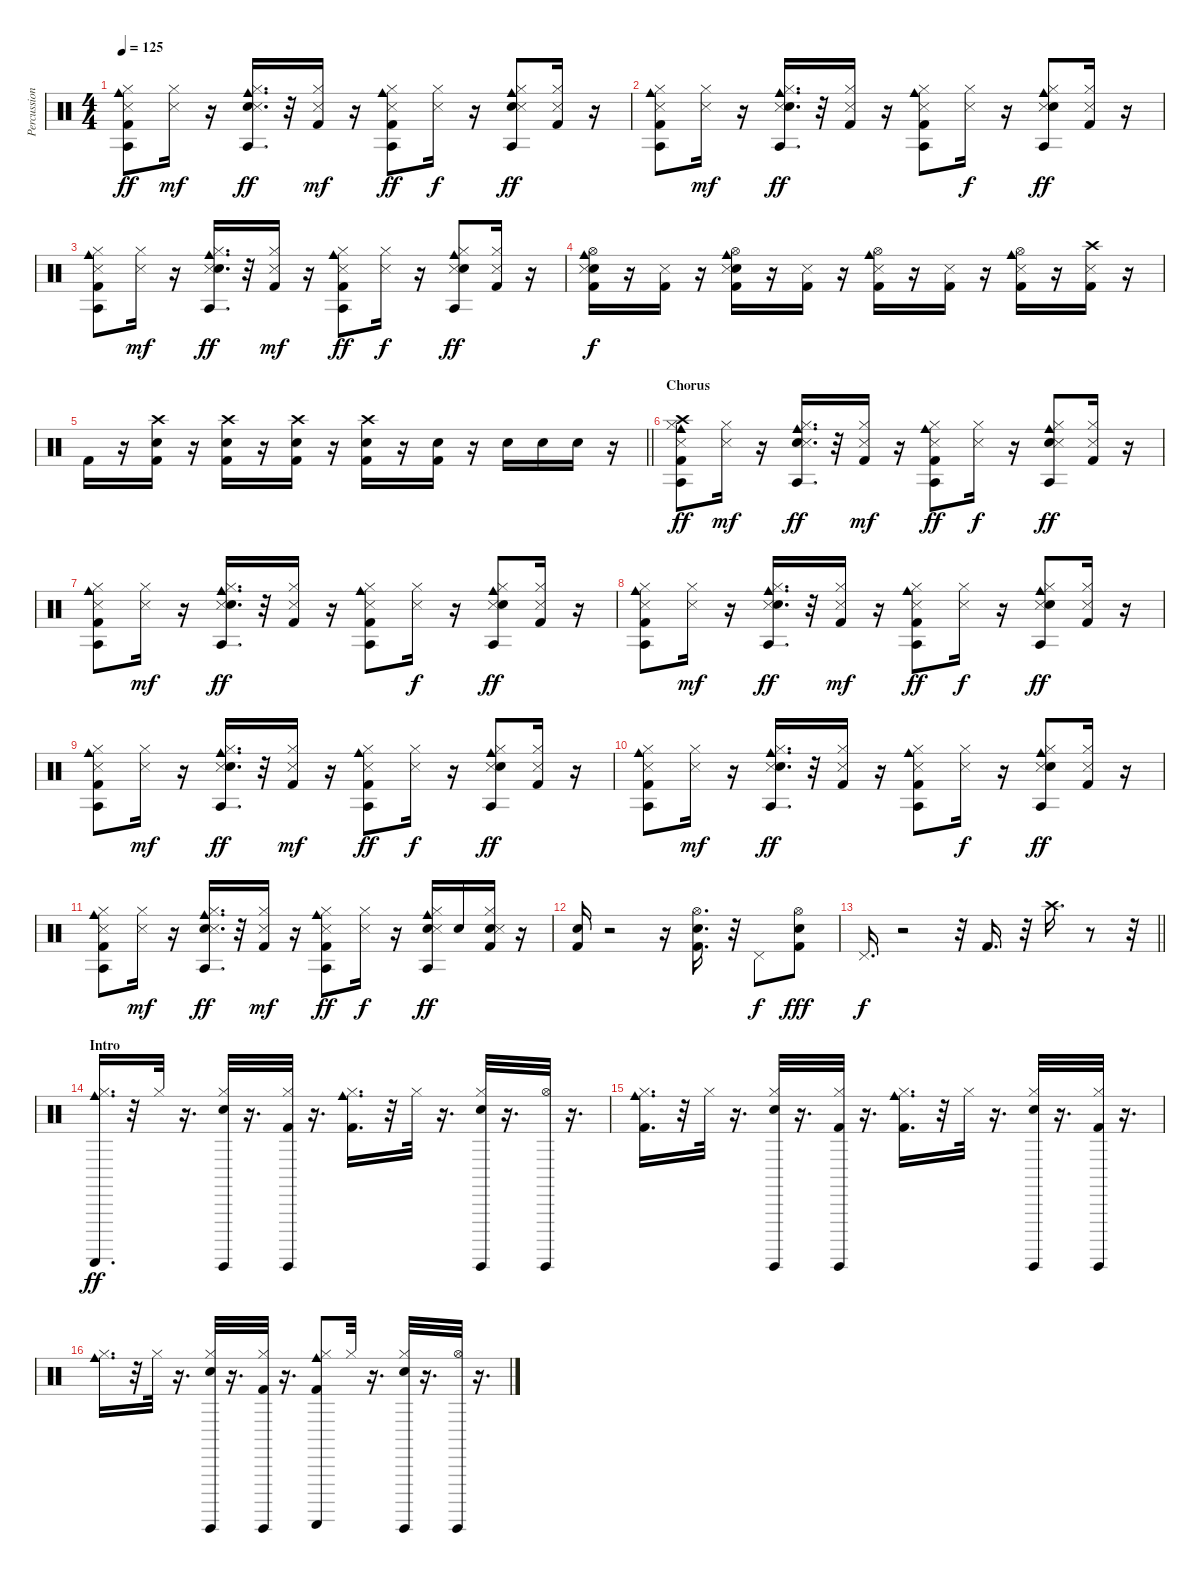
\track ("Percussion" "Percussion") {instrument percussion}
\staff {score}
\articulation defaults
\ts (4 4)
\tempo 125
\clef neutral
\ks c
("Kick (hit) 2" "Agogo tow (hit)" "Cowbell medium (hit)" "Snare (side stick) 3" "Hi-Hat (closed)").8{dy ff} ("Snare (side stick) 3" "Hi-Hat (closed)").16{dy mf} r.16 ("Snare (hit) 2" "Agogo tow (hit)" "Cowbell medium (hit)" "Snare (side stick) 3" "Hi-Hat (closed)").16{d dy ff} r.32 ("Kick (hit) 2" "Snare (side stick) 3" "Hi-Hat (closed)").16{dy mf} r.16 ("Kick (hit) 2" "Agogo tow (hit)" "Cowbell medium (hit)" "Snare (side stick) 3" "Hi-Hat (closed)").8{dy ff} ("Snare (side stick) 3" "Hi-Hat (closed)").16{dy f} r.16 ("Snare (hit) 2" "Agogo tow (hit)" "Cowbell medium (hit)" "Snare (side stick) 3" "Hi-Hat (closed)").8{dy ff} ("Kick (hit) 2" "Snare (side stick) 3" "Hi-Hat (closed)").16 r.16 |
("Agogo tow (hit)" "Snare (side stick) 3" "Cowbell medium (hit)" "Hi-Hat (closed)" "Kick (hit) 2").8 ("Snare (side stick) 3" "Hi-Hat (closed)").16{dy mf} r.16 ("Agogo tow (hit)" "Snare (side stick) 3" "Cowbell medium (hit)" "Hi-Hat (closed)" "Snare (hit) 2").16{d dy ff} r.32 ("Snare (side stick) 3" "Hi-Hat (closed)" "Kick (hit) 2").16 r.16 ("Agogo tow (hit)" "Snare (side stick) 3" "Cowbell medium (hit)" "Hi-Hat (closed)" "Kick (hit) 2").8 ("Snare (side stick) 3" "Hi-Hat (closed)").16{dy f} r.16 ("Agogo tow (hit)" "Snare (side stick) 3" "Cowbell medium (hit)" "Hi-Hat (closed)" "Snare (hit) 2").8{dy ff} ("Snare (side stick) 3" "Hi-Hat (closed)" "Kick (hit) 2").16 r.16 |
("Cowbell medium (hit)" "Snare (side stick) 3" "Agogo tow (hit)" "Kick (hit) 2" "Hi-Hat (closed)").8 ("Snare (side stick) 3" "Hi-Hat (closed)").16{dy mf} r.16 ("Cowbell medium (hit)" "Snare (side stick) 3" "Agogo tow (hit)" "Snare (hit) 2" "Hi-Hat (closed)").16{d dy ff} r.32 ("Snare (side stick) 3" "Kick (hit) 2" "Hi-Hat (closed)").16{dy mf} r.16 ("Cowbell medium (hit)" "Snare (side stick) 3" "Agogo tow (hit)" "Kick (hit) 2" "Hi-Hat (closed)").8{dy ff} ("Snare (side stick) 3" "Hi-Hat (closed)").16{dy f} r.16 ("Cowbell medium (hit)" "Snare (side stick) 3" "Agogo tow (hit)" "Snare (hit) 2" "Hi-Hat (closed)").8{dy ff} ("Snare (side stick) 3" "Kick (hit) 2" "Hi-Hat (closed)").16 r.16 |
("Electric Snare (hit)" "Snare (side stick) 3" "Cowbell medium (hit)" "Hi-Hat (open)" "Kick (hit) 2").16{dy f} r.16 ("Snare (side stick) 3" "Kick (hit) 2").16 r.16 ("Electric Snare (hit)" "Snare (side stick) 3" "Cowbell medium (hit)" "Hi-Hat (open)" "Kick (hit) 2").16 r.16 ("Snare (side stick) 3" "Kick (hit) 2").16 r.16 ("Snare (side stick) 3" "Cowbell medium (hit)" "Hi-Hat (open)" "Kick (hit) 2").16 r.16 ("Snare (side stick) 3" "Kick (hit) 2").16 r.16 ("Snare (side stick) 3" "Cowbell medium (hit)" "Hi-Hat (open)" "Kick (hit) 2").16 r.16 ("Crash high (hit)" "Snare (side stick) 3" "Kick (hit) 2").16 r.16 |
\barLineRight lightlight "Kick (hit) 2".16
r.16 ("Crash high (hit)" "Snare (hit) 2" "Kick (hit) 2").16 r.16 ("Snare (hit) 2" "Crash high (hit)" "Kick (hit) 2").16 r.16 ("Snare (hit) 2" "Kick (hit) 2" "Crash high (hit)").16 r.16 ("Snare (hit) 2" "Crash high (hit)" "Kick (hit) 2").16 r.16 ("Snare (hit) 2" "Kick (hit) 2").16 r.16 "Snare (hit) 2".16 "Snare (hit) 2".16 "Snare (hit) 2".16 r.16 |
\section ("" "Chorus")
("Kick (hit) 2" "Hi-Hat (closed)" "Agogo tow (hit)" "Crash high (hit)" "Cowbell medium (hit)" "Snare (side stick) 3").8{dy ff} ("Hi-Hat (closed)" "Snare (side stick) 3").16{dy mf} r.16 ("Snare (hit) 2" "Hi-Hat (closed)" "Agogo tow (hit)" "Cowbell medium (hit)" "Snare (side stick) 3").16{d dy ff} r.32 ("Kick (hit) 2" "Hi-Hat (closed)" "Snare (side stick) 3").16{dy mf} r.16 ("Kick (hit) 2" "Hi-Hat (closed)" "Agogo tow (hit)" "Cowbell medium (hit)" "Snare (side stick) 3").8{dy ff} ("Hi-Hat (closed)" "Snare (side stick) 3").16{dy f} r.16 ("Snare (hit) 2" "Hi-Hat (closed)" "Agogo tow (hit)" "Cowbell medium (hit)" "Snare (side stick) 3").8{dy ff} ("Kick (hit) 2" "Hi-Hat (closed)" "Snare (side stick) 3").16 r.16 |
("Cowbell medium (hit)" "Snare (side stick) 3" "Hi-Hat (closed)" "Agogo tow (hit)" "Kick (hit) 2").8 ("Snare (side stick) 3" "Hi-Hat (closed)").16{dy mf} r.16 ("Cowbell medium (hit)" "Snare (side stick) 3" "Hi-Hat (closed)" "Agogo tow (hit)" "Snare (hit) 2").16{d dy ff} r.32 ("Snare (side stick) 3" "Hi-Hat (closed)" "Kick (hit) 2").16 r.16 ("Cowbell medium (hit)" "Snare (side stick) 3" "Hi-Hat (closed)" "Agogo tow (hit)" "Kick (hit) 2").8 ("Snare (side stick) 3" "Hi-Hat (closed)").16{dy f} r.16 ("Cowbell medium (hit)" "Snare (side stick) 3" "Hi-Hat (closed)" "Agogo tow (hit)" "Snare (hit) 2").8{dy ff} ("Snare (side stick) 3" "Hi-Hat (closed)" "Kick (hit) 2").16 r.16 |
("Snare (side stick) 3" "Agogo tow (hit)" "Kick (hit) 2" "Cowbell medium (hit)" "Hi-Hat (closed)").8 ("Snare (side stick) 3" "Hi-Hat (closed)").16{dy mf} r.16 ("Snare (side stick) 3" "Agogo tow (hit)" "Snare (hit) 2" "Cowbell medium (hit)" "Hi-Hat (closed)").16{d dy ff} r.32 ("Snare (side stick) 3" "Kick (hit) 2" "Hi-Hat (closed)").16{dy mf} r.16 ("Snare (side stick) 3" "Agogo tow (hit)" "Kick (hit) 2" "Cowbell medium (hit)" "Hi-Hat (closed)").8{dy ff} ("Snare (side stick) 3" "Hi-Hat (closed)").16{dy f} r.16 ("Snare (side stick) 3" "Agogo tow (hit)" "Snare (hit) 2" "Cowbell medium (hit)" "Hi-Hat (closed)").8{dy ff} ("Snare (side stick) 3" "Kick (hit) 2" "Hi-Hat (closed)").16 r.16 |
("Cowbell medium (hit)" "Agogo tow (hit)" "Snare (side stick) 3" "Kick (hit) 2" "Hi-Hat (closed)").8 ("Snare (side stick) 3" "Hi-Hat (closed)").16{dy mf} r.16 ("Cowbell medium (hit)" "Agogo tow (hit)" "Snare (side stick) 3" "Snare (hit) 2" "Hi-Hat (closed)").16{d dy ff} r.32 ("Snare (side stick) 3" "Kick (hit) 2" "Hi-Hat (closed)").16{dy mf} r.16 ("Cowbell medium (hit)" "Agogo tow (hit)" "Snare (side stick) 3" "Kick (hit) 2" "Hi-Hat (closed)").8{dy ff} ("Snare (side stick) 3" "Hi-Hat (closed)").16{dy f} r.16 ("Cowbell medium (hit)" "Agogo tow (hit)" "Snare (side stick) 3" "Snare (hit) 2" "Hi-Hat (closed)").8{dy ff} ("Snare (side stick) 3" "Kick (hit) 2" "Hi-Hat (closed)").16 r.16 |
("Hi-Hat (closed)" "Cowbell medium (hit)" "Snare (side stick) 3" "Agogo tow (hit)" "Kick (hit) 2").8 ("Hi-Hat (closed)" "Snare (side stick) 3").16{dy mf} r.16 ("Hi-Hat (closed)" "Cowbell medium (hit)" "Snare (side stick) 3" "Agogo tow (hit)" "Snare (hit) 2").16{d dy ff} r.32 ("Hi-Hat (closed)" "Snare (side stick) 3" "Kick (hit) 2").16 r.16 ("Hi-Hat (closed)" "Cowbell medium (hit)" "Snare (side stick) 3" "Agogo tow (hit)" "Kick (hit) 2").8 ("Hi-Hat (closed)" "Snare (side stick) 3").16{dy f} r.16 ("Hi-Hat (closed)" "Cowbell medium (hit)" "Snare (side stick) 3" "Agogo tow (hit)" "Snare (hit) 2").8{dy ff} ("Hi-Hat (closed)" "Snare (side stick) 3" "Kick (hit) 2").16 r.16 |
("Kick (hit) 2" "Agogo tow (hit)" "Cowbell medium (hit)" "Snare (side stick) 3" "Hi-Hat (closed)").8 ("Snare (side stick) 3" "Hi-Hat (closed)").16{dy mf} r.16 ("Snare (hit) 2" "Agogo tow (hit)" "Cowbell medium (hit)" "Snare (side stick) 3" "Hi-Hat (closed)").16{d dy ff} r.32 ("Kick (hit) 2" "Snare (side stick) 3" "Hi-Hat (closed)").16{dy mf} r.16 ("Kick (hit) 2" "Agogo tow (hit)" "Cowbell medium (hit)" "Snare (side stick) 3" "Hi-Hat (closed)").8{dy ff} ("Snare (side stick) 3" "Hi-Hat (closed)").16{dy f} r.16 ("Snare (hit) 2" "Agogo tow (hit)" "Cowbell medium (hit)" "Snare (side stick) 3" "Hi-Hat (closed)").16{dy ff} "Snare (hit) 2".16 ("Snare (hit) 2" "Kick (hit) 2" "Snare (side stick) 3" "Hi-Hat (closed)").16 r.16 |
("Kick (hit) 2" "Snare (hit) 2").16 r.2 r.16 ("Snare (hit) 2" "Kick (hit) 2" "Hi-Hat (open)").16{d} r.32 "Pedal Hi-Hat (hit)".8{dy f} ("Kick (hit) 2" "Snare (hit) 2" "Hi-Hat (open)").8{dy fff} |
\barLineRight lightlight "Pedal Hi-Hat (hit)".16{d dy f}
r.2 r.32 "Kick (hit) 2".16{d} r.32 "Crash high (hit)".16{d} r.8 r.32 |
\section ("" "Intro")
("Cowbell medium (hit)" "Guiro (scrap-return)" "Hi-Hat (closed)").16{d dy ff} r.32 "Hi-Hat (closed)".32 r.16{d} ("Guiro (hit)" "Snare (hit) 2" "Hi-Hat (closed)").32 r.16{d} ("Hi-Hat (closed)" "Kick (hit) 2" "Guiro (hit)").32 r.16{d} ("Kick (hit) 2" "Hi-Hat (closed)" "Cowbell medium (hit)").16{d} r.32 "Hi-Hat (closed)".32 r.16{d} ("Guiro (hit)" "Snare (hit) 2" "Hi-Hat (closed)").32 r.16{d} ("Hi-Hat (open)" "Guiro (hit)").32 r.16{d} |
("Kick (hit) 2" "Hi-Hat (closed)" "Cowbell medium (hit)").16{d} r.32 "Hi-Hat (closed)".32 r.16{d} ("Guiro (hit)" "Snare (hit) 2" "Hi-Hat (closed)").32 r.16{d} ("Hi-Hat (closed)" "Kick (hit) 2" "Guiro (hit)").32 r.16{d} ("Kick (hit) 2" "Hi-Hat (closed)" "Cowbell medium (hit)").16{d} r.32 "Hi-Hat (closed)".32 r.16{d} ("Guiro (hit)" "Snare (hit) 2" "Hi-Hat (closed)").32 r.16{d} ("Guiro (hit)" "Hi-Hat (closed)" "Kick (hit) 2").32 r.16{d} |
("Hi-Hat (closed)" "Cowbell medium (hit)").16{d} r.32 "Hi-Hat (closed)".32 r.16{d} ("Guiro (hit)" "Snare (hit) 2" "Hi-Hat (closed)").32 r.16{d} ("Hi-Hat (closed)" "Kick (hit) 2" "Guiro (hit)").32 r.16{d} ("Cowbell medium (hit)" "Guiro (scrap-return)" "Kick (hit) 2" "Hi-Hat (closed)").8 "Hi-Hat (closed)".32 r.16{d} ("Guiro (hit)" "Snare (hit) 2" "Hi-Hat (closed)").32 r.16{d} ("Hi-Hat (open)" "Guiro (hit)").32 r.16{d}
